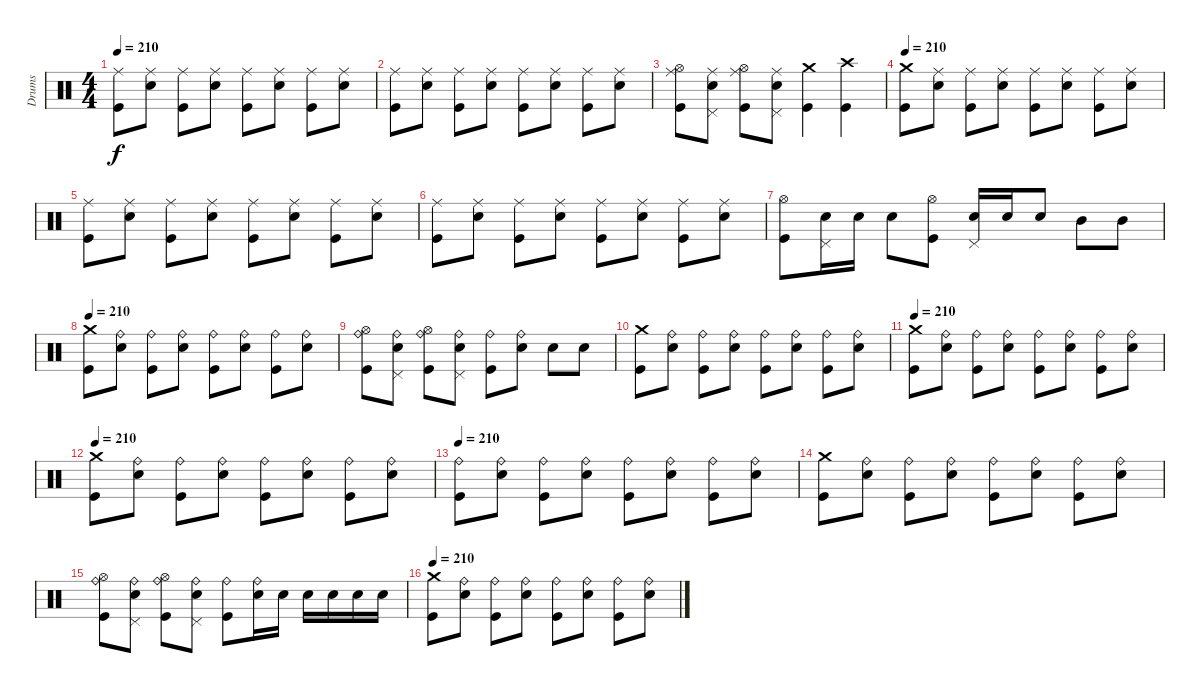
\track ("Drums" "Drums") {instrument percussion}
\staff {score}
\articulation defaults
\ts (4 4)
\tempo 210
\clef neutral
\ks c
("Ride (middle)" "Kick (hit)").8{dy f} ("Ride (middle)" "Electric Snare (hit)").8 ("Ride (middle)" "Kick (hit)").8 ("Ride (middle)" "Electric Snare (hit)").8 ("Ride (middle)" "Kick (hit)").8 ("Ride (middle)" "Electric Snare (hit)").8 ("Ride (middle)" "Kick (hit)").8 ("Ride (middle)" "Electric Snare (hit)").8 |
("Ride (middle)" "Kick (hit)").8 ("Ride (middle)" "Electric Snare (hit)").8 ("Ride (middle)" "Kick (hit)").8 ("Ride (middle)" "Electric Snare (hit)").8 ("Ride (middle)" "Kick (hit)").8 ("Ride (middle)" "Electric Snare (hit)").8 ("Ride (middle)" "Kick (hit)").8 ("Ride (middle)" "Electric Snare (hit)").8 |
("Ride (middle)" "Hi-Hat (open)" "Kick (hit)").8 ("Ride (middle)" "Pedal Hi-Hat (hit)" "Electric Snare (hit)").8 ("Ride (middle)" "Hi-Hat (open)" "Kick (hit)").8 ("Ride (middle)" "Pedal Hi-Hat (hit)" "Electric Snare (hit)").8 ("Crash medium (hit)" "Kick (hit)").4 ("Crash high (hit)" "Kick (hit)").4 |
\tempo 210
("Crash medium (hit)" "Kick (hit)").8 ("Ride (middle)" "Electric Snare (hit)").8 ("Ride (middle)" "Kick (hit)").8 ("Ride (middle)" "Electric Snare (hit)").8 ("Ride (middle)" "Kick (hit)").8 ("Ride (middle)" "Electric Snare (hit)").8 ("Ride (middle)" "Kick (hit)").8 ("Ride (middle)" "Electric Snare (hit)").8 |
("Ride (middle)" "Kick (hit)").8 ("Ride (middle)" "Electric Snare (hit)").8 ("Ride (middle)" "Kick (hit)").8 ("Ride (middle)" "Electric Snare (hit)").8 ("Ride (middle)" "Kick (hit)").8 ("Ride (middle)" "Electric Snare (hit)").8 ("Ride (middle)" "Kick (hit)").8 ("Ride (middle)" "Electric Snare (hit)").8 |
("Ride (middle)" "Kick (hit)").8 ("Ride (middle)" "Electric Snare (hit)").8 ("Ride (middle)" "Kick (hit)").8 ("Ride (middle)" "Electric Snare (hit)").8 ("Ride (middle)" "Kick (hit)").8 ("Ride (middle)" "Electric Snare (hit)").8 ("Ride (middle)" "Kick (hit)").8 ("Ride (middle)" "Electric Snare (hit)").8 |
("Hi-Hat (open)" "Kick (hit)").8 ("Pedal Hi-Hat (hit)" "Electric Snare (hit)").16 "Electric Snare (hit)".16 "Electric Snare (hit)".8 ("Hi-Hat (open)" "Kick (hit)").8 ("Pedal Hi-Hat (hit)" "Electric Snare (hit)").16 "Electric Snare (hit)".16 "Electric Snare (hit)".8 "Mid Tom (hit)".8 "Mid Tom (hit)".8 |
\tempo 210
("Crash medium (hit)" "Kick (hit)").8 ("Ride (bell)" "Electric Snare (hit)").8 ("Ride (bell)" "Kick (hit)").8 ("Ride (bell)" "Electric Snare (hit)").8 ("Ride (bell)" "Kick (hit)").8 ("Ride (bell)" "Electric Snare (hit)").8 ("Ride (bell)" "Kick (hit)").8 ("Ride (bell)" "Electric Snare (hit)").8 |
("Ride (bell)" "Hi-Hat (open)" "Kick (hit)").8 ("Ride (bell)" "Pedal Hi-Hat (hit)" "Electric Snare (hit)").8 ("Ride (bell)" "Hi-Hat (open)" "Kick (hit)").8 ("Ride (bell)" "Pedal Hi-Hat (hit)" "Electric Snare (hit)").8 ("Ride (bell)" "Kick (hit)").8 ("Ride (bell)" "Electric Snare (hit)").8 "Electric Snare (hit)".8 "Electric Snare (hit)".8 |
("Crash medium (hit)" "Kick (hit)").8 ("Ride (bell)" "Electric Snare (hit)").8 ("Ride (bell)" "Kick (hit)").8 ("Ride (bell)" "Electric Snare (hit)").8 ("Ride (bell)" "Kick (hit)").8 ("Ride (bell)" "Electric Snare (hit)").8 ("Ride (bell)" "Kick (hit)").8 ("Ride (bell)" "Electric Snare (hit)").8 |
\tempo 210
("Crash medium (hit)" "Kick (hit)").8 ("Ride (bell)" "Electric Snare (hit)").8 ("Ride (bell)" "Kick (hit)").8 ("Ride (bell)" "Electric Snare (hit)").8 ("Ride (bell)" "Kick (hit)").8 ("Ride (bell)" "Electric Snare (hit)").8 ("Ride (bell)" "Kick (hit)").8 ("Ride (bell)" "Electric Snare (hit)").8 |
\tempo 210
("Crash medium (hit)" "Kick (hit)").8 ("Ride (bell)" "Electric Snare (hit)").8 ("Ride (bell)" "Kick (hit)").8 ("Ride (bell)" "Electric Snare (hit)").8 ("Ride (bell)" "Kick (hit)").8 ("Ride (bell)" "Electric Snare (hit)").8 ("Ride (bell)" "Kick (hit)").8 ("Ride (bell)" "Electric Snare (hit)").8 |
\tempo 210
("Ride (bell)" "Kick (hit)").8 ("Ride (bell)" "Electric Snare (hit)").8 ("Ride (bell)" "Kick (hit)").8 ("Ride (bell)" "Electric Snare (hit)").8 ("Ride (bell)" "Kick (hit)").8 ("Ride (bell)" "Electric Snare (hit)").8 ("Ride (bell)" "Kick (hit)").8 ("Ride (bell)" "Electric Snare (hit)").8 |
("Crash medium (hit)" "Kick (hit)").8 ("Ride (bell)" "Electric Snare (hit)").8 ("Ride (bell)" "Kick (hit)").8 ("Ride (bell)" "Electric Snare (hit)").8 ("Ride (bell)" "Kick (hit)").8 ("Ride (bell)" "Electric Snare (hit)").8 ("Ride (bell)" "Kick (hit)").8 ("Ride (bell)" "Electric Snare (hit)").8 |
("Ride (bell)" "Hi-Hat (open)" "Kick (hit)").8 ("Ride (bell)" "Pedal Hi-Hat (hit)" "Electric Snare (hit)").8 ("Ride (bell)" "Hi-Hat (open)" "Kick (hit)").8 ("Ride (bell)" "Pedal Hi-Hat (hit)" "Electric Snare (hit)").8 ("Ride (bell)" "Kick (hit)").8 ("Ride (bell)" "Electric Snare (hit)").16 "Electric Snare (hit)".16 "Electric Snare (hit)".16 "Electric Snare (hit)".16 "Electric Snare (hit)".16 "Electric Snare (hit)".16 |
\tempo 210
("Crash medium (hit)" "Kick (hit)").8 ("Ride (bell)" "Electric Snare (hit)").8 ("Ride (bell)" "Kick (hit)").8 ("Ride (bell)" "Electric Snare (hit)").8 ("Ride (bell)" "Kick (hit)").8 ("Ride (bell)" "Electric Snare (hit)").8 ("Ride (bell)" "Kick (hit)").8 ("Ride (bell)" "Electric Snare (hit)").8
